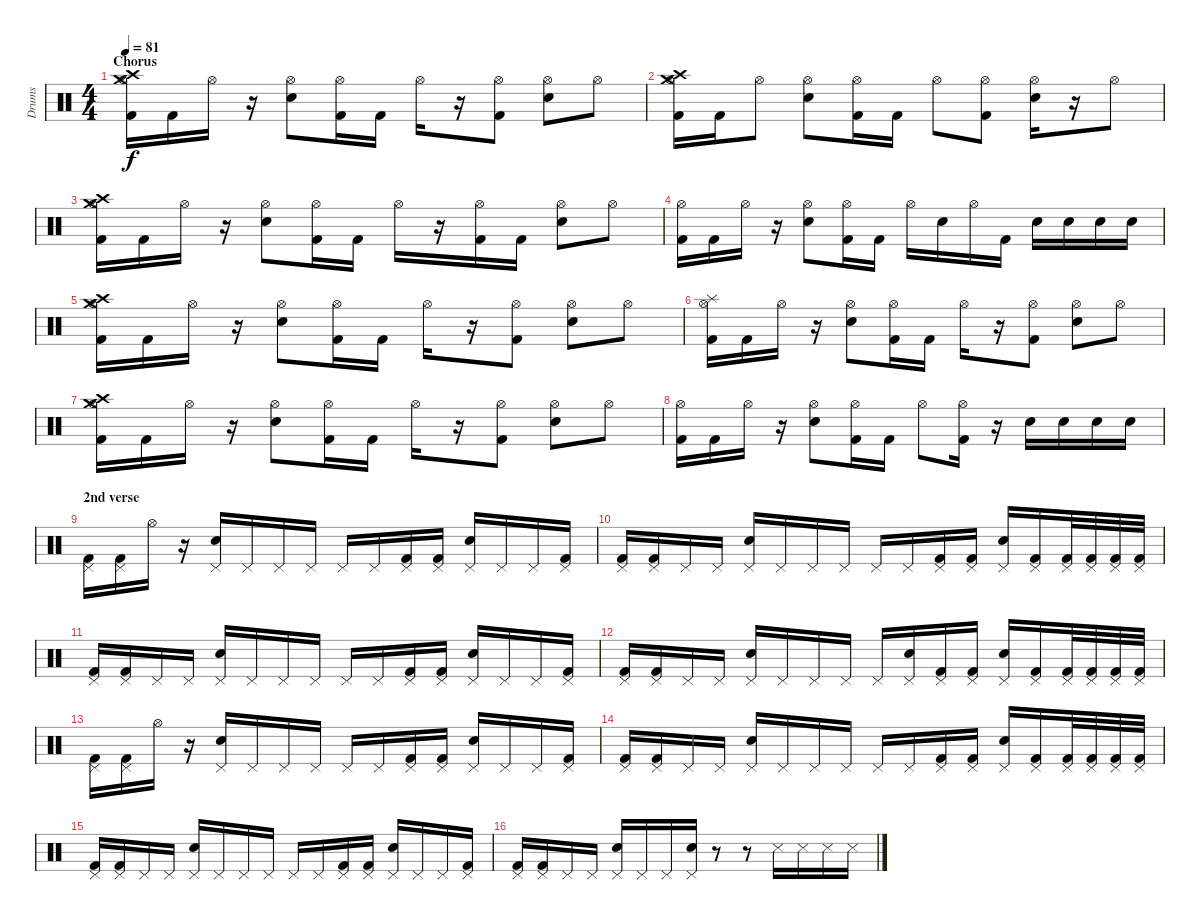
\track ("Drums" "Drums") {instrument percussion}
\staff {score}
\articulation defaults
\ts (4 4)
\section ("" "Chorus")
\tempo 81
\clef neutral
\ks c
("Crash medium (hit)" "Crash high (hit)" "Kick (hit) 2" "Hi-Hat (open)").16{dy f} "Kick (hit) 2".16 "Hi-Hat (open)".16 r.16 ("Snare (hit) 2" "Hi-Hat (open)").8 ("Kick (hit) 2" "Hi-Hat (open)").16 "Kick (hit) 2".16 "Hi-Hat (open)".16 r.16 ("Kick (hit) 2" "Hi-Hat (open)").8 ("Snare (hit) 2" "Hi-Hat (open)").8 "Hi-Hat (open)".8 |
("Crash medium (hit)" "Crash high (hit)" "Kick (hit) 2" "Hi-Hat (open)").16 "Kick (hit) 2".16 "Hi-Hat (open)".8 ("Snare (hit) 2" "Hi-Hat (open)").8 ("Kick (hit) 2" "Hi-Hat (open)").16 "Kick (hit) 2".16 "Hi-Hat (open)".8 ("Kick (hit) 2" "Hi-Hat (open)").8 ("Snare (hit) 2" "Hi-Hat (open)").16 r.16 "Hi-Hat (open)".8 |
("Crash medium (hit)" "Crash high (hit)" "Kick (hit) 2" "Hi-Hat (open)").16 "Kick (hit) 2".16 "Hi-Hat (open)".16 r.16 ("Snare (hit) 2" "Hi-Hat (open)").8 ("Kick (hit) 2" "Hi-Hat (open)").16 "Kick (hit) 2".16 "Hi-Hat (open)".16 r.16 ("Kick (hit) 2" "Hi-Hat (open)").16 "Kick (hit) 2".16 ("Snare (hit) 2" "Hi-Hat (open)").8 "Hi-Hat (open)".8 |
("Kick (hit) 2" "Hi-Hat (open)").16 "Kick (hit) 2".16 "Hi-Hat (open)".16 r.16 ("Snare (hit) 2" "Hi-Hat (open)").8 ("Kick (hit) 2" "Hi-Hat (open)").16 "Kick (hit) 2".16 "Hi-Hat (open)".16 "Snare (hit) 2".16 "Hi-Hat (open)".16 "Kick (hit) 2".16 "Snare (hit) 2".16 "Snare (hit) 2".16 "Snare (hit) 2".16 "Snare (hit) 2".16 |
("Crash medium (hit)" "Crash high (hit)" "Kick (hit) 2" "Hi-Hat (open)").16 "Kick (hit) 2".16 "Hi-Hat (open)".16 r.16 ("Snare (hit) 2" "Hi-Hat (open)").8 ("Kick (hit) 2" "Hi-Hat (open)").16 "Kick (hit) 2".16 "Hi-Hat (open)".16 r.16 ("Kick (hit) 2" "Hi-Hat (open)").8 ("Snare (hit) 2" "Hi-Hat (open)").8 "Hi-Hat (open)".8 |
("Splash (hit)" "Kick (hit) 2" "Hi-Hat (open)").16 "Kick (hit) 2".16 "Hi-Hat (open)".16 r.16 ("Snare (hit) 2" "Hi-Hat (open)").8 ("Kick (hit) 2" "Hi-Hat (open)").16 "Kick (hit) 2".16 "Hi-Hat (open)".16 r.16 ("Kick (hit) 2" "Hi-Hat (open)").8 ("Snare (hit) 2" "Hi-Hat (open)").8 "Hi-Hat (open)".8 |
("Crash medium (hit)" "Crash high (hit)" "Kick (hit) 2" "Hi-Hat (open)").16 "Kick (hit) 2".16 "Hi-Hat (open)".16 r.16 ("Snare (hit) 2" "Hi-Hat (open)").8 ("Kick (hit) 2" "Hi-Hat (open)").16 "Kick (hit) 2".16 "Hi-Hat (open)".16 r.16 ("Kick (hit) 2" "Hi-Hat (open)").8 ("Snare (hit) 2" "Hi-Hat (open)").8 "Hi-Hat (open)".8 |
("Kick (hit) 2" "Hi-Hat (open)").16 "Kick (hit) 2".16 "Hi-Hat (open)".16 r.16 ("Snare (hit) 2" "Hi-Hat (open)").8 ("Kick (hit) 2" "Hi-Hat (open)").16 "Kick (hit) 2".16 "Hi-Hat (open)".8 ("Kick (hit) 2" "Hi-Hat (open)").16 r.16 "Snare (hit) 2".16 "Snare (hit) 2".16 "Snare (hit) 2".16 "Snare (hit) 2".16 |
\section ("" "2nd verse")
("Kick (hit) 2" "Pedal Hi-Hat (hit)").16 ("Kick (hit) 2" "Pedal Hi-Hat (hit)").16 "Hi-Hat (open)".16 r.16 ("Snare (hit) 2" "Pedal Hi-Hat (hit)").16 "Pedal Hi-Hat (hit)".16 "Pedal Hi-Hat (hit)".16 "Pedal Hi-Hat (hit)".16 "Pedal Hi-Hat (hit)".16 "Pedal Hi-Hat (hit)".16 ("Kick (hit) 2" "Pedal Hi-Hat (hit)").16 ("Kick (hit) 2" "Pedal Hi-Hat (hit)").16 ("Snare (hit) 2" "Pedal Hi-Hat (hit)").16 "Pedal Hi-Hat (hit)".16 "Pedal Hi-Hat (hit)".16 ("Kick (hit) 2" "Pedal Hi-Hat (hit)").16 |
("Kick (hit) 2" "Pedal Hi-Hat (hit)").16 ("Kick (hit) 2" "Pedal Hi-Hat (hit)").16 "Pedal Hi-Hat (hit)".16 "Pedal Hi-Hat (hit)".16 ("Snare (hit) 2" "Pedal Hi-Hat (hit)").16 "Pedal Hi-Hat (hit)".16 "Pedal Hi-Hat (hit)".16 "Pedal Hi-Hat (hit)".16 "Pedal Hi-Hat (hit)".16 "Pedal Hi-Hat (hit)".16 ("Kick (hit) 2" "Pedal Hi-Hat (hit)").16 ("Kick (hit) 2" "Pedal Hi-Hat (hit)").16 ("Snare (hit) 2" "Pedal Hi-Hat (hit)").16 ("Kick (hit) 2" "Pedal Hi-Hat (hit)").16 ("Kick (hit) 2" "Pedal Hi-Hat (hit)").32 ("Kick (hit) 2" "Pedal Hi-Hat (hit)").32 ("Kick (hit) 2" "Pedal Hi-Hat (hit)").32 ("Kick (hit) 2" "Pedal Hi-Hat (hit)").32 |
("Kick (hit) 2" "Pedal Hi-Hat (hit)").16 ("Kick (hit) 2" "Pedal Hi-Hat (hit)").16 "Pedal Hi-Hat (hit)".16 "Pedal Hi-Hat (hit)".16 ("Snare (hit) 2" "Pedal Hi-Hat (hit)").16 "Pedal Hi-Hat (hit)".16 "Pedal Hi-Hat (hit)".16 "Pedal Hi-Hat (hit)".16 "Pedal Hi-Hat (hit)".16 "Pedal Hi-Hat (hit)".16 ("Kick (hit) 2" "Pedal Hi-Hat (hit)").16 ("Kick (hit) 2" "Pedal Hi-Hat (hit)").16 ("Snare (hit) 2" "Pedal Hi-Hat (hit)").16 "Pedal Hi-Hat (hit)".16 "Pedal Hi-Hat (hit)".16 ("Kick (hit) 2" "Pedal Hi-Hat (hit)").16 |
("Kick (hit) 2" "Pedal Hi-Hat (hit)").16 ("Kick (hit) 2" "Pedal Hi-Hat (hit)").16 "Pedal Hi-Hat (hit)".16 "Pedal Hi-Hat (hit)".16 ("Snare (hit) 2" "Pedal Hi-Hat (hit)").16 "Pedal Hi-Hat (hit)".16 "Pedal Hi-Hat (hit)".16 "Pedal Hi-Hat (hit)".16 "Pedal Hi-Hat (hit)".16 ("Snare (hit) 2" "Pedal Hi-Hat (hit)").16 ("Kick (hit) 2" "Pedal Hi-Hat (hit)").16 ("Kick (hit) 2" "Pedal Hi-Hat (hit)").16 ("Snare (hit) 2" "Pedal Hi-Hat (hit)").16 ("Kick (hit) 2" "Pedal Hi-Hat (hit)").16 ("Kick (hit) 2" "Pedal Hi-Hat (hit)").32 ("Kick (hit) 2" "Pedal Hi-Hat (hit)").32 ("Kick (hit) 2" "Pedal Hi-Hat (hit)").32 ("Kick (hit) 2" "Pedal Hi-Hat (hit)").32 |
("Kick (hit) 2" "Pedal Hi-Hat (hit)").16 ("Kick (hit) 2" "Pedal Hi-Hat (hit)").16 "Hi-Hat (open)".16 r.16 ("Snare (hit) 2" "Pedal Hi-Hat (hit)").16 "Pedal Hi-Hat (hit)".16 "Pedal Hi-Hat (hit)".16 "Pedal Hi-Hat (hit)".16 "Pedal Hi-Hat (hit)".16 "Pedal Hi-Hat (hit)".16 ("Kick (hit) 2" "Pedal Hi-Hat (hit)").16 ("Kick (hit) 2" "Pedal Hi-Hat (hit)").16 ("Snare (hit) 2" "Pedal Hi-Hat (hit)").16 "Pedal Hi-Hat (hit)".16 "Pedal Hi-Hat (hit)".16 ("Kick (hit) 2" "Pedal Hi-Hat (hit)").16 |
("Kick (hit) 2" "Pedal Hi-Hat (hit)").16 ("Kick (hit) 2" "Pedal Hi-Hat (hit)").16 "Pedal Hi-Hat (hit)".16 "Pedal Hi-Hat (hit)".16 ("Snare (hit) 2" "Pedal Hi-Hat (hit)").16 "Pedal Hi-Hat (hit)".16 "Pedal Hi-Hat (hit)".16 "Pedal Hi-Hat (hit)".16 "Pedal Hi-Hat (hit)".16 "Pedal Hi-Hat (hit)".16 ("Kick (hit) 2" "Pedal Hi-Hat (hit)").16 ("Kick (hit) 2" "Pedal Hi-Hat (hit)").16 ("Snare (hit) 2" "Pedal Hi-Hat (hit)").16 ("Kick (hit) 2" "Pedal Hi-Hat (hit)").16 ("Kick (hit) 2" "Pedal Hi-Hat (hit)").32 ("Kick (hit) 2" "Pedal Hi-Hat (hit)").32 ("Kick (hit) 2" "Pedal Hi-Hat (hit)").32 ("Kick (hit) 2" "Pedal Hi-Hat (hit)").32 |
("Kick (hit) 2" "Pedal Hi-Hat (hit)").16 ("Kick (hit) 2" "Pedal Hi-Hat (hit)").16 "Pedal Hi-Hat (hit)".16 "Pedal Hi-Hat (hit)".16 ("Snare (hit) 2" "Pedal Hi-Hat (hit)").16 "Pedal Hi-Hat (hit)".16 "Pedal Hi-Hat (hit)".16 "Pedal Hi-Hat (hit)".16 "Pedal Hi-Hat (hit)".16 "Pedal Hi-Hat (hit)".16 ("Kick (hit) 2" "Pedal Hi-Hat (hit)").16 ("Kick (hit) 2" "Pedal Hi-Hat (hit)").16 ("Snare (hit) 2" "Pedal Hi-Hat (hit)").16 "Pedal Hi-Hat (hit)".16 "Pedal Hi-Hat (hit)".16 ("Kick (hit) 2" "Pedal Hi-Hat (hit)").16 |
("Kick (hit) 2" "Pedal Hi-Hat (hit)").16 ("Kick (hit) 2" "Pedal Hi-Hat (hit)").16 "Pedal Hi-Hat (hit)".16 "Pedal Hi-Hat (hit)".16 ("Snare (hit) 2" "Pedal Hi-Hat (hit)").16 "Pedal Hi-Hat (hit)".16 "Pedal Hi-Hat (hit)".16 ("Snare (hit) 2" "Pedal Hi-Hat (hit)").16 r.8 r.8 "Snare (side stick) 3".16 "Snare (side stick) 3".16 "Snare (side stick) 3".16 "Snare (side stick) 3".16
